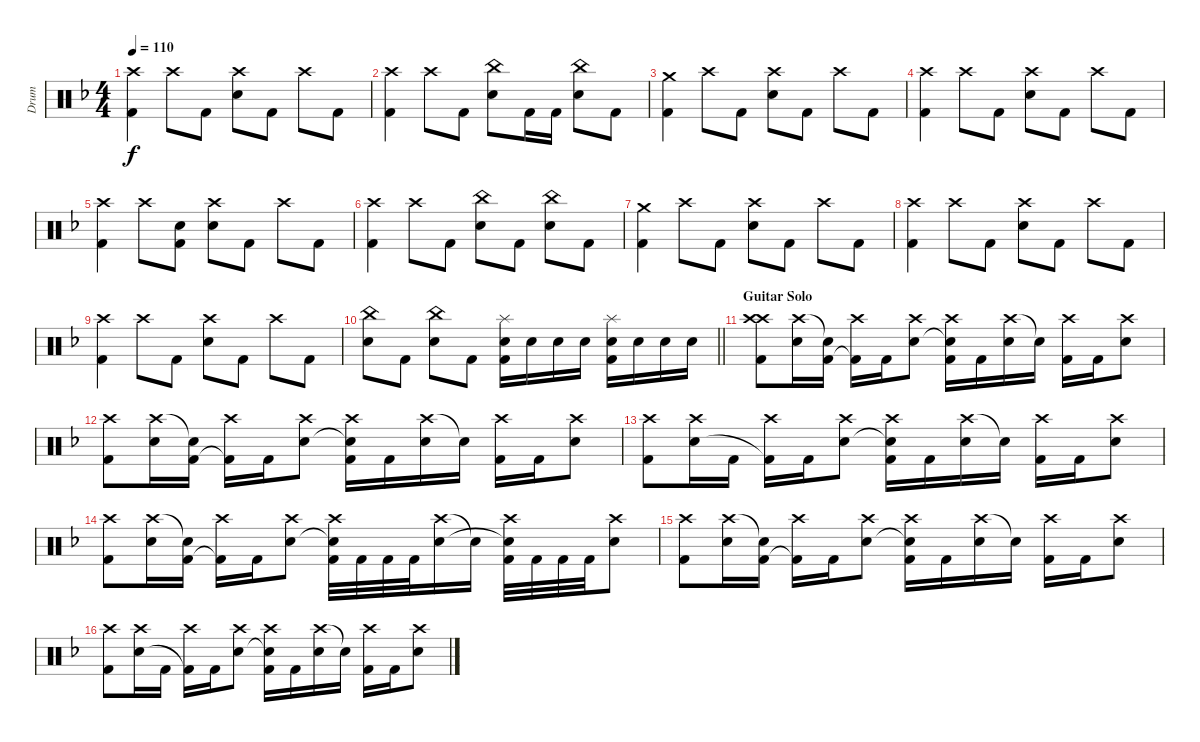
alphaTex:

\track ("Drum" "Drum") {instrument percussion}
\staff {score}
\articulation defaults
\ts (4 4)
\tempo 110
\clef neutral
\ks f
("Crash high (hit)" "Kick (hit) 2").4{dy f} "Crash high (hit)".8 "Kick (hit) 2".8 ("Crash high (hit)" "Electric Snare (hit)").8 "Kick (hit) 2".8 "Crash high (hit)".8 "Kick (hit) 2".8 |
("Crash high (hit)" "Kick (hit) 2").4 "Crash high (hit)".8 "Kick (hit) 2".8 ("China (hit)" "Electric Snare (hit)").8 "Kick (hit) 2".16 "Kick (hit) 2".16 ("China (hit)" "Electric Snare (hit)").8 "Kick (hit) 2".8 |
("Crash medium (hit)" "Kick (hit) 2").4 "Crash high (hit)".8 "Kick (hit) 2".8 ("Crash high (hit)" "Snare (hit) 2").8 "Kick (hit) 2".8 "Crash high (hit)".8 "Kick (hit) 2".8 |
("Crash high (hit)" "Kick (hit) 2").4 "Crash high (hit)".8 "Kick (hit) 2".8 ("Crash high (hit)" "Electric Snare (hit)").8 "Kick (hit) 2".8 "Crash high (hit)".8 "Kick (hit) 2".8 |
("Crash high (hit)" "Kick (hit) 2").4 "Crash high (hit)".8 ("Electric Snare (hit)" "Kick (hit) 2").8 ("Crash high (hit)" "Electric Snare (hit)").8 "Kick (hit) 2".8 "Crash high (hit)".8 "Kick (hit) 2".8 |
("Crash high (hit)" "Kick (hit) 2").4 "Crash high (hit)".8 "Kick (hit) 2".8 ("China (hit)" "Electric Snare (hit)").8 "Kick (hit) 2".8 ("China (hit)" "Electric Snare (hit)").8 "Kick (hit) 2".8 |
("Crash medium (hit)" "Kick (hit) 2").4 "Crash high (hit)".8 "Kick (hit) 2".8 ("Crash high (hit)" "Electric Snare (hit)").8 "Kick (hit) 2".8 "Crash high (hit)".8 "Kick (hit) 2".8 |
("Crash high (hit)" "Kick (hit) 2").4 "Crash high (hit)".8 "Kick (hit) 2".8 ("Crash high (hit)" "Electric Snare (hit)").8 "Kick (hit) 2".8 "Crash high (hit)".8 "Kick (hit) 2".8 |
("Crash high (hit)" "Kick (hit) 2").4 "Crash high (hit)".8 "Kick (hit) 2".8 ("Crash high (hit)" "Electric Snare (hit)").8 "Kick (hit) 2".8 "Crash high (hit)".8 "Kick (hit) 2".8 |
\barLineRight lightlight
("China (hit)" "Electric Snare (hit)").8 "Kick (hit) 2".8 ("China (hit)" "Electric Snare (hit)").8 "Kick (hit) 2".8 ("Splash (hit)" "Electric Snare (hit)" "Kick (hit) 2").16 "Electric Snare (hit)".16 "Electric Snare (hit)".16 "Electric Snare (hit)".16 ("Splash (hit)" "Electric Snare (hit)" "Kick (hit) 2").16 "Electric Snare (hit)".16 "Electric Snare (hit)".16 "Electric Snare (hit)".16 |
\section ("" "Guitar Solo")
("Crash high (hit)" "Crash high (hit)" "Kick (hit) 2").8{volume 16} ("Crash high (hit)" "Electric Snare (hit)").16 ("Snare (hit)"{t} "Kick (hit) 2").16 ("Crash high (hit)" "Kick (hit) 2"{t}).16 "Kick (hit) 2".16 ("Crash high (hit)" "Electric Snare (hit)").8 ("Crash high (hit)" "Snare (hit) 2"{t} "Kick (hit) 2").16 "Kick (hit) 2".16 ("Crash high (hit)" "Electric Snare (hit)").16 "Snare (hit) 2"{t}.16 ("Crash high (hit)" "Kick (hit) 2").16 "Kick (hit) 2".16 ("Crash high (hit)" "Electric Snare (hit)").8 |
("Crash high (hit)" "Kick (hit) 2").8 ("Crash high (hit)" "Electric Snare (hit)").16 ("Snare (hit)"{t} "Kick (hit) 2").16 ("Crash high (hit)" "Kick (hit) 2"{t}).16 "Kick (hit) 2".16 ("Crash high (hit)" "Electric Snare (hit)").8 ("Crash high (hit)" "Snare (hit) 2"{t} "Kick (hit) 2").16 "Kick (hit) 2".16 ("Crash high (hit)" "Electric Snare (hit)").16 "Snare (hit) 2"{t}.16 ("Crash high (hit)" "Kick (hit) 2").16 "Kick (hit) 2".16 ("Crash high (hit)" "Electric Snare (hit)").8 |
("Crash high (hit)" "Kick (hit) 2").8 ("Crash high (hit)" "Electric Snare (hit)").16 "Kick (hit) 2".16 ("Crash high (hit)" "Kick (hit) 2"{t}).16 "Kick (hit) 2".16 ("Crash high (hit)" "Electric Snare (hit)").8 ("Crash high (hit)" "Snare (hit) 2"{t} "Kick (hit) 2").16 "Kick (hit) 2".16 ("Crash high (hit)" "Electric Snare (hit)").16 "Snare (hit) 2"{t}.16 ("Crash high (hit)" "Kick (hit) 2").16 "Kick (hit) 2".16 ("Crash high (hit)" "Electric Snare (hit)").8 |
("Crash high (hit)" "Kick (hit) 2").8 ("Crash high (hit)" "Electric Snare (hit)").16 ("Snare (hit)"{t} "Kick (hit) 2").16 ("Crash high (hit)" "Kick (hit) 2"{t}).16 "Kick (hit) 2".16 ("Crash high (hit)" "Electric Snare (hit)").8 ("Crash high (hit)" "Snare (hit) 2"{t} "Kick (hit) 2").32 "Kick (hit) 2".32 "Kick (hit) 2".32 "Kick (hit) 2".32 ("Crash high (hit)" "Electric Snare (hit)").16 "Snare (hit) 2"{t}.16 ("Crash high (hit)" "Snare (hit) 2"{t} "Kick (hit) 2").32 "Kick (hit) 2".32 "Kick (hit) 2".32 "Kick (hit) 2".32 ("Crash high (hit)" "Electric Snare (hit)").8 |
("Crash high (hit)" "Kick (hit) 2").8 ("Crash high (hit)" "Electric Snare (hit)").16 ("Snare (hit)"{t} "Kick (hit) 2").16 ("Crash high (hit)" "Kick (hit) 2"{t}).16 "Kick (hit) 2".16 ("Crash high (hit)" "Electric Snare (hit)").8 ("Crash high (hit)" "Snare (hit) 2"{t} "Kick (hit) 2").16 "Kick (hit) 2".16 ("Crash high (hit)" "Electric Snare (hit)").16 "Snare (hit) 2"{t}.16 ("Crash high (hit)" "Kick (hit) 2").16 "Kick (hit) 2".16 ("Crash high (hit)" "Electric Snare (hit)").8 |
("Crash high (hit)" "Kick (hit) 2").8 ("Crash high (hit)" "Electric Snare (hit)").16 "Kick (hit) 2".16 ("Crash high (hit)" "Kick (hit) 2"{t}).16 "Kick (hit) 2".16 ("Crash high (hit)" "Electric Snare (hit)").8 ("Crash high (hit)" "Snare (hit) 2"{t} "Kick (hit) 2").16 "Kick (hit) 2".16 ("Crash high (hit)" "Electric Snare (hit)").16 "Snare (hit) 2"{t}.16 ("Crash high (hit)" "Kick (hit) 2").16 "Kick (hit) 2".16 ("Crash high (hit)" "Electric Snare (hit)").8
